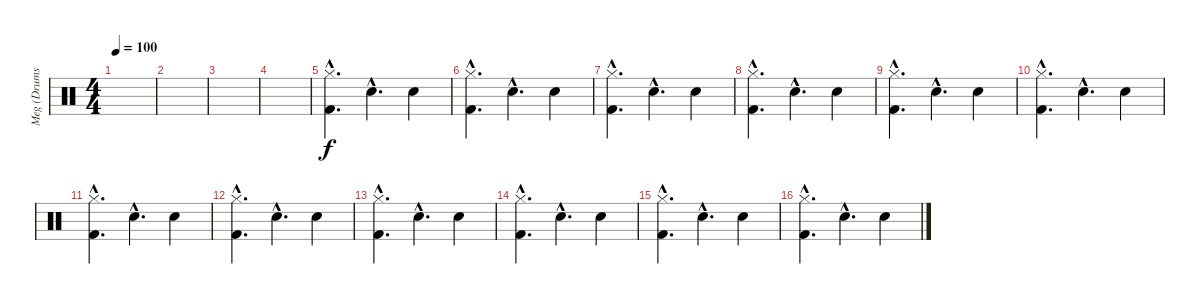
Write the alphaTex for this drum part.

\track ("Meg (Drums)" "Meg (Drums") {instrument percussion}
\staff {score}
\articulation defaults
\ts (4 4)
\tempo 100
\clef neutral
\ks c
|
|
|
|
("Hi-Hat (closed)"{hac} "Kick (hit) 2"{hac}).4{d} "Snare (hit) 2"{hac}.4{d} "Snare (hit) 2".4 |
("Hi-Hat (closed)"{hac} "Kick (hit) 2"{hac}).4{d} "Snare (hit) 2"{hac}.4{d} "Snare (hit) 2".4 |
("Hi-Hat (closed)"{hac} "Kick (hit) 2"{hac}).4{d} "Snare (hit) 2"{hac}.4{d} "Snare (hit) 2".4 |
("Hi-Hat (closed)"{hac} "Kick (hit) 2"{hac}).4{d} "Snare (hit) 2"{hac}.4{d} "Snare (hit) 2".4 |
("Hi-Hat (closed)"{hac} "Kick (hit) 2"{hac}).4{d} "Snare (hit) 2"{hac}.4{d} "Snare (hit) 2".4 |
("Hi-Hat (closed)"{hac} "Kick (hit) 2"{hac}).4{d} "Snare (hit) 2"{hac}.4{d} "Snare (hit) 2".4 |
("Hi-Hat (closed)"{hac} "Kick (hit) 2"{hac}).4{d} "Snare (hit) 2"{hac}.4{d} "Snare (hit) 2".4 |
("Hi-Hat (closed)"{hac} "Kick (hit) 2"{hac}).4{d} "Snare (hit) 2"{hac}.4{d} "Snare (hit) 2".4 |
("Hi-Hat (closed)"{hac} "Kick (hit) 2"{hac}).4{d} "Snare (hit) 2"{hac}.4{d} "Snare (hit) 2".4 |
("Hi-Hat (closed)"{hac} "Kick (hit) 2"{hac}).4{d} "Snare (hit) 2"{hac}.4{d} "Snare (hit) 2".4 |
("Hi-Hat (closed)"{hac} "Kick (hit) 2"{hac}).4{d} "Snare (hit) 2"{hac}.4{d} "Snare (hit) 2".4 |
("Hi-Hat (closed)"{hac} "Kick (hit) 2"{hac}).4{d} "Snare (hit) 2"{hac}.4{d} "Snare (hit) 2".4
